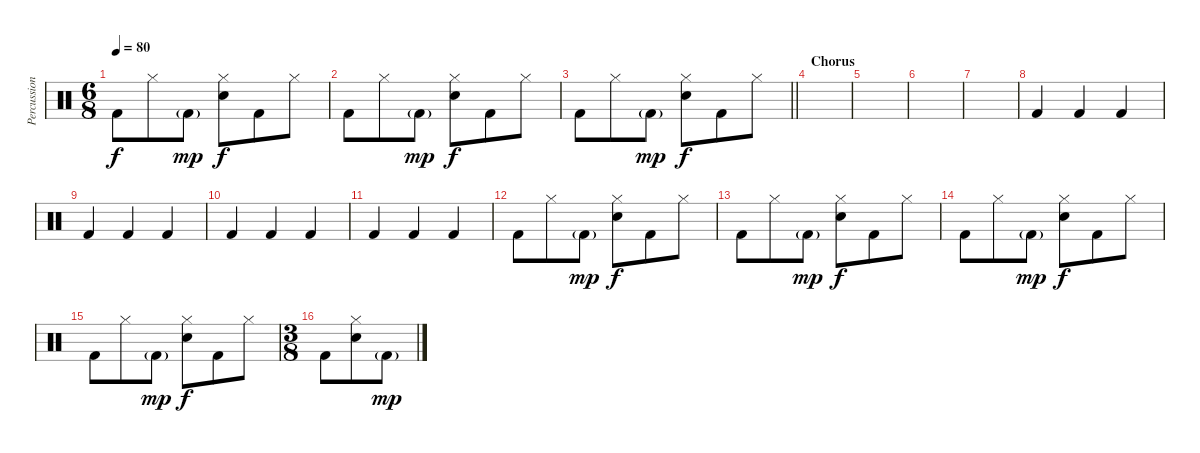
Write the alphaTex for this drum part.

\track ("Percussion" "Percussion") {instrument percussion}
\staff {score}
\articulation defaults
\ts (6 8)
\tempo 80
\clef neutral
\ks c "Kick (hit) 2".8{dy f} "Hi-Hat (closed)".8 "Kick (hit) 2"{g}.8{dy mp}
("Hi-Hat (closed)" "Snare (hit) 2").8{dy f} "Kick (hit) 2".8 "Hi-Hat (closed)".8 |
"Kick (hit) 2".8 "Hi-Hat (closed)".8 "Kick (hit) 2"{g}.8{dy mp} ("Hi-Hat (closed)" "Snare (hit) 2").8{dy f} "Kick (hit) 2".8 "Hi-Hat (closed)".8 |
\barLineRight lightlight "Kick (hit) 2".8 "Hi-Hat (closed)".8 "Kick (hit) 2"{g}.8{dy mp}
("Hi-Hat (closed)" "Snare (hit) 2").8{dy f} "Kick (hit) 2".8 "Hi-Hat (closed)".8 |
\section ("" "Chorus")
|
|
|
|
"Kick (hit) 2".4 "Kick (hit) 2".4 "Kick (hit) 2".4 |
"Kick (hit) 2".4 "Kick (hit) 2".4 "Kick (hit) 2".4 |
"Kick (hit) 2".4 "Kick (hit) 2".4 "Kick (hit) 2".4 |
"Kick (hit) 2".4 "Kick (hit) 2".4 "Kick (hit) 2".4 |
"Kick (hit) 2".8 "Hi-Hat (closed)".8 "Kick (hit) 2"{g}.8{dy mp} ("Hi-Hat (closed)" "Snare (hit) 2").8{dy f} "Kick (hit) 2".8 "Hi-Hat (closed)".8 |
"Kick (hit) 2".8 "Hi-Hat (closed)".8 "Kick (hit) 2"{g}.8{dy mp} ("Hi-Hat (closed)" "Snare (hit) 2").8{dy f} "Kick (hit) 2".8 "Hi-Hat (closed)".8 |
"Kick (hit) 2".8 "Hi-Hat (closed)".8 "Kick (hit) 2"{g}.8{dy mp} ("Hi-Hat (closed)" "Snare (hit) 2").8{dy f} "Kick (hit) 2".8 "Hi-Hat (closed)".8 |
"Kick (hit) 2".8 "Hi-Hat (closed)".8 "Kick (hit) 2"{g}.8{dy mp} ("Hi-Hat (closed)" "Snare (hit) 2").8{dy f} "Kick (hit) 2".8 "Hi-Hat (closed)".8 |
\ts (3 8)
"Kick (hit) 2".8 ("Hi-Hat (closed)" "Snare (hit) 2").8 "Kick (hit) 2"{g}.8{dy mp}
